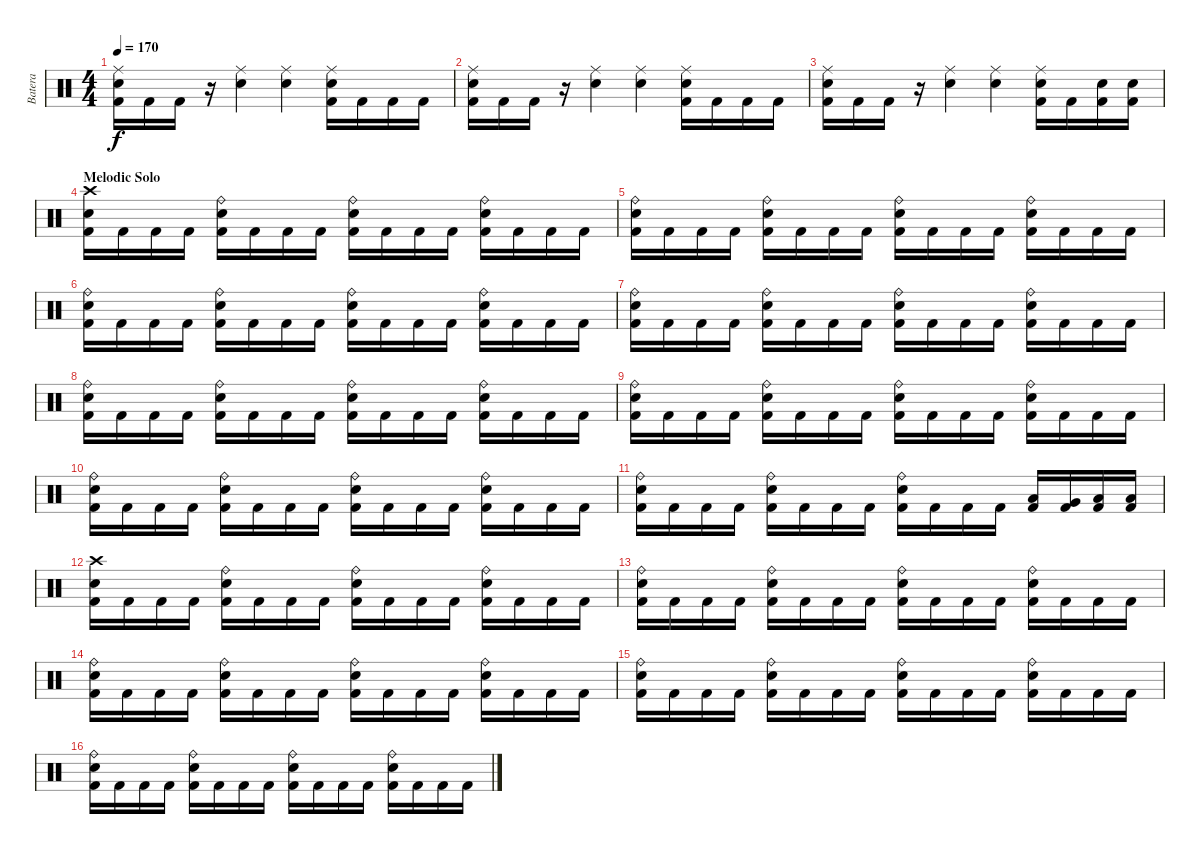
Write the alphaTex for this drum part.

\track ("Batera" "Batera") {instrument percussion}
\staff {score}
\articulation defaults
\ts (4 4)
\tempo 170
\clef neutral
\ks c
("Ride (middle)" "Electric Snare (hit)" "Kick (hit) 2").16{dy f} "Kick (hit) 2".16 "Kick (hit) 2".16 r.16 ("Ride (middle)" "Electric Snare (hit)").4 ("Ride (middle)" "Electric Snare (hit)").4 ("Ride (middle)" "Electric Snare (hit)" "Kick (hit) 2").16 "Kick (hit) 2".16 "Kick (hit) 2".16 "Kick (hit) 2".16 |
("Ride (middle)" "Electric Snare (hit)" "Kick (hit) 2").16 "Kick (hit) 2".16 "Kick (hit) 2".16 r.16 ("Ride (middle)" "Electric Snare (hit)").4 ("Ride (middle)" "Electric Snare (hit)").4 ("Ride (middle)" "Electric Snare (hit)" "Kick (hit) 2").16 "Kick (hit) 2".16 "Kick (hit) 2".16 "Kick (hit) 2".16 |
("Ride (middle)" "Electric Snare (hit)" "Kick (hit) 2").16 "Kick (hit) 2".16 "Kick (hit) 2".16 r.16 ("Ride (middle)" "Electric Snare (hit)").4 ("Ride (middle)" "Electric Snare (hit)").4 ("Ride (middle)" "Electric Snare (hit)" "Kick (hit) 2").16 "Kick (hit) 2".16 ("Electric Snare (hit)" "Kick (hit) 2").16 ("Electric Snare (hit)" "Kick (hit) 2").16 |
\section ("" "Melodic Solo")
("Crash high (hit)" "Electric Snare (hit)" "Kick (hit) 2").16 "Kick (hit) 2".16 "Kick (hit) 2".16 "Kick (hit) 2".16 ("Ride (bell)" "Electric Snare (hit)" "Kick (hit) 2").16 "Kick (hit) 2".16 "Kick (hit) 2".16 "Kick (hit) 2".16 ("Ride (bell)" "Electric Snare (hit)" "Kick (hit) 2").16 "Kick (hit) 2".16 "Kick (hit) 2".16 "Kick (hit) 2".16 ("Ride (bell)" "Electric Snare (hit)" "Kick (hit) 2").16 "Kick (hit) 2".16 "Kick (hit) 2".16 "Kick (hit) 2".16 |
("Ride (bell)" "Electric Snare (hit)" "Kick (hit) 2").16 "Kick (hit) 2".16 "Kick (hit) 2".16 "Kick (hit) 2".16 ("Ride (bell)" "Electric Snare (hit)" "Kick (hit) 2").16 "Kick (hit) 2".16 "Kick (hit) 2".16 "Kick (hit) 2".16 ("Ride (bell)" "Electric Snare (hit)" "Kick (hit) 2").16 "Kick (hit) 2".16 "Kick (hit) 2".16 "Kick (hit) 2".16 ("Ride (bell)" "Electric Snare (hit)" "Kick (hit) 2").16 "Kick (hit) 2".16 "Kick (hit) 2".16 "Kick (hit) 2".16 |
("Ride (bell)" "Electric Snare (hit)" "Kick (hit) 2").16 "Kick (hit) 2".16 "Kick (hit) 2".16 "Kick (hit) 2".16 ("Ride (bell)" "Electric Snare (hit)" "Kick (hit) 2").16 "Kick (hit) 2".16 "Kick (hit) 2".16 "Kick (hit) 2".16 ("Ride (bell)" "Electric Snare (hit)" "Kick (hit) 2").16 "Kick (hit) 2".16 "Kick (hit) 2".16 "Kick (hit) 2".16 ("Ride (bell)" "Electric Snare (hit)" "Kick (hit) 2").16 "Kick (hit) 2".16 "Kick (hit) 2".16 "Kick (hit) 2".16 |
("Ride (bell)" "Electric Snare (hit)" "Kick (hit) 2").16 "Kick (hit) 2".16 "Kick (hit) 2".16 "Kick (hit) 2".16 ("Ride (bell)" "Electric Snare (hit)" "Kick (hit) 2").16 "Kick (hit) 2".16 "Kick (hit) 2".16 "Kick (hit) 2".16 ("Ride (bell)" "Electric Snare (hit)" "Kick (hit) 2").16 "Kick (hit) 2".16 "Kick (hit) 2".16 "Kick (hit) 2".16 ("Ride (bell)" "Electric Snare (hit)" "Kick (hit) 2").16 "Kick (hit) 2".16 "Kick (hit) 2".16 "Kick (hit) 2".16 |
("Ride (bell)" "Electric Snare (hit)" "Kick (hit) 2").16 "Kick (hit) 2".16 "Kick (hit) 2".16 "Kick (hit) 2".16 ("Ride (bell)" "Electric Snare (hit)" "Kick (hit) 2").16 "Kick (hit) 2".16 "Kick (hit) 2".16 "Kick (hit) 2".16 ("Ride (bell)" "Electric Snare (hit)" "Kick (hit) 2").16 "Kick (hit) 2".16 "Kick (hit) 2".16 "Kick (hit) 2".16 ("Ride (bell)" "Electric Snare (hit)" "Kick (hit) 2").16 "Kick (hit) 2".16 "Kick (hit) 2".16 "Kick (hit) 2".16 |
("Ride (bell)" "Electric Snare (hit)" "Kick (hit) 2").16 "Kick (hit) 2".16 "Kick (hit) 2".16 "Kick (hit) 2".16 ("Ride (bell)" "Electric Snare (hit)" "Kick (hit) 2").16 "Kick (hit) 2".16 "Kick (hit) 2".16 "Kick (hit) 2".16 ("Ride (bell)" "Electric Snare (hit)" "Kick (hit) 2").16 "Kick (hit) 2".16 "Kick (hit) 2".16 "Kick (hit) 2".16 ("Ride (bell)" "Electric Snare (hit)" "Kick (hit) 2").16 "Kick (hit) 2".16 "Kick (hit) 2".16 "Kick (hit) 2".16 |
("Ride (bell)" "Electric Snare (hit)" "Kick (hit) 2").16 "Kick (hit) 2".16 "Kick (hit) 2".16 "Kick (hit) 2".16 ("Ride (bell)" "Electric Snare (hit)" "Kick (hit) 2").16 "Kick (hit) 2".16 "Kick (hit) 2".16 "Kick (hit) 2".16 ("Ride (bell)" "Electric Snare (hit)" "Kick (hit) 2").16 "Kick (hit) 2".16 "Kick (hit) 2".16 "Kick (hit) 2".16 ("Ride (bell)" "Electric Snare (hit)" "Kick (hit) 2").16 "Kick (hit) 2".16 "Kick (hit) 2".16 "Kick (hit) 2".16 |
("Ride (bell)" "Electric Snare (hit)" "Kick (hit) 2").16 "Kick (hit) 2".16 "Kick (hit) 2".16 "Kick (hit) 2".16 ("Ride (bell)" "Electric Snare (hit)" "Kick (hit) 2").16 "Kick (hit) 2".16 "Kick (hit) 2".16 "Kick (hit) 2".16 ("Ride (bell)" "Electric Snare (hit)" "Kick (hit) 2").16 "Kick (hit) 2".16 "Kick (hit) 2".16 "Kick (hit) 2".16 ("Low Floor Tom (hit)" "Kick (hit) 2").16 ("Very Low Tom (hit)" "Kick (hit) 2").16 ("Low Floor Tom (hit)" "Kick (hit) 2").16 ("Low Tom (hit)" "Kick (hit) 2").16 |
("Crash high (hit)" "Electric Snare (hit)" "Kick (hit) 2").16 "Kick (hit) 2".16 "Kick (hit) 2".16 "Kick (hit) 2".16 ("Ride (bell)" "Electric Snare (hit)" "Kick (hit) 2").16 "Kick (hit) 2".16 "Kick (hit) 2".16 "Kick (hit) 2".16 ("Ride (bell)" "Electric Snare (hit)" "Kick (hit) 2").16 "Kick (hit) 2".16 "Kick (hit) 2".16 "Kick (hit) 2".16 ("Ride (bell)" "Electric Snare (hit)" "Kick (hit) 2").16 "Kick (hit) 2".16 "Kick (hit) 2".16 "Kick (hit) 2".16 |
("Ride (bell)" "Electric Snare (hit)" "Kick (hit) 2").16 "Kick (hit) 2".16 "Kick (hit) 2".16 "Kick (hit) 2".16 ("Ride (bell)" "Electric Snare (hit)" "Kick (hit) 2").16 "Kick (hit) 2".16 "Kick (hit) 2".16 "Kick (hit) 2".16 ("Ride (bell)" "Electric Snare (hit)" "Kick (hit) 2").16 "Kick (hit) 2".16 "Kick (hit) 2".16 "Kick (hit) 2".16 ("Ride (bell)" "Electric Snare (hit)" "Kick (hit) 2").16 "Kick (hit) 2".16 "Kick (hit) 2".16 "Kick (hit) 2".16 |
("Ride (bell)" "Electric Snare (hit)" "Kick (hit) 2").16 "Kick (hit) 2".16 "Kick (hit) 2".16 "Kick (hit) 2".16 ("Ride (bell)" "Electric Snare (hit)" "Kick (hit) 2").16 "Kick (hit) 2".16 "Kick (hit) 2".16 "Kick (hit) 2".16 ("Ride (bell)" "Electric Snare (hit)" "Kick (hit) 2").16 "Kick (hit) 2".16 "Kick (hit) 2".16 "Kick (hit) 2".16 ("Ride (bell)" "Electric Snare (hit)" "Kick (hit) 2").16 "Kick (hit) 2".16 "Kick (hit) 2".16 "Kick (hit) 2".16 |
("Ride (bell)" "Electric Snare (hit)" "Kick (hit) 2").16 "Kick (hit) 2".16 "Kick (hit) 2".16 "Kick (hit) 2".16 ("Ride (bell)" "Electric Snare (hit)" "Kick (hit) 2").16 "Kick (hit) 2".16 "Kick (hit) 2".16 "Kick (hit) 2".16 ("Ride (bell)" "Electric Snare (hit)" "Kick (hit) 2").16 "Kick (hit) 2".16 "Kick (hit) 2".16 "Kick (hit) 2".16 ("Ride (bell)" "Electric Snare (hit)" "Kick (hit) 2").16 "Kick (hit) 2".16 "Kick (hit) 2".16 "Kick (hit) 2".16 |
("Ride (bell)" "Electric Snare (hit)" "Kick (hit) 2").16 "Kick (hit) 2".16 "Kick (hit) 2".16 "Kick (hit) 2".16 ("Ride (bell)" "Electric Snare (hit)" "Kick (hit) 2").16 "Kick (hit) 2".16 "Kick (hit) 2".16 "Kick (hit) 2".16 ("Ride (bell)" "Electric Snare (hit)" "Kick (hit) 2").16 "Kick (hit) 2".16 "Kick (hit) 2".16 "Kick (hit) 2".16 ("Ride (bell)" "Electric Snare (hit)" "Kick (hit) 2").16 "Kick (hit) 2".16 "Kick (hit) 2".16 "Kick (hit) 2".16
